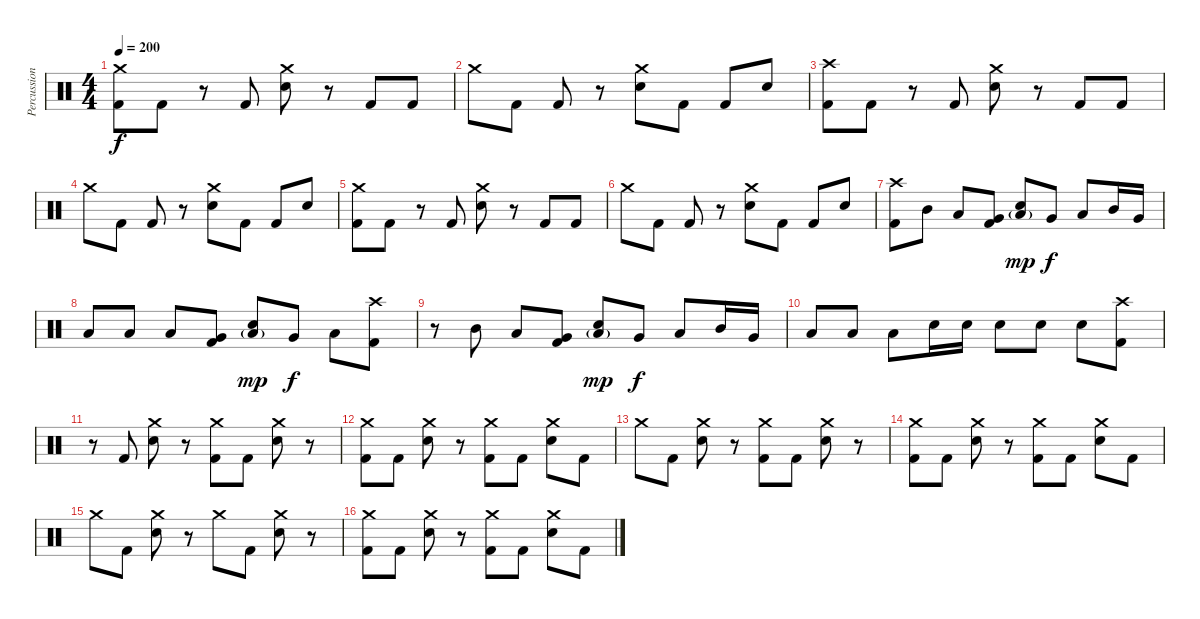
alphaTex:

\track ("Percussion" "Percussion") {instrument percussion}
\staff {score}
\articulation defaults
\ts (4 4)
\tempo 200
\clef neutral
\ks c
("Crash medium (hit)" "Kick (hit) 2").8{dy f} "Kick (hit) 2".8 r.8 "Kick (hit) 2".8 ("Crash medium (hit)" "Snare (hit) 2").8 r.8 "Kick (hit) 2".8 "Kick (hit) 2".8 |
"Crash medium (hit)".8 "Kick (hit) 2".8 "Kick (hit) 2".8 r.8 ("Crash medium (hit)" "Snare (hit) 2").8 "Kick (hit) 2".8 "Kick (hit) 2".8 "Snare (hit) 2".8 |
("Crash high (hit)" "Kick (hit) 2").8 "Kick (hit) 2".8 r.8 "Kick (hit) 2".8 ("Crash medium (hit)" "Snare (hit) 2").8 r.8 "Kick (hit) 2".8 "Kick (hit) 2".8 |
"Crash medium (hit)".8 "Kick (hit) 2".8 "Kick (hit) 2".8 r.8 ("Crash medium (hit)" "Snare (hit) 2").8 "Kick (hit) 2".8 "Kick (hit) 2".8 "Snare (hit) 2".8 |
("Crash medium (hit)" "Kick (hit) 2").8 "Kick (hit) 2".8 r.8 "Kick (hit) 2".8 ("Crash medium (hit)" "Snare (hit) 2").8 r.8 "Kick (hit) 2".8 "Kick (hit) 2".8 |
"Crash medium (hit)".8 "Kick (hit) 2".8 "Kick (hit) 2".8 r.8 ("Crash medium (hit)" "Snare (hit) 2").8 "Kick (hit) 2".8 "Kick (hit) 2".8 "Snare (hit) 2".8 |
("Crash high (hit)" "Kick (hit) 2").8 "Mid Tom (hit)".8 "Low Floor Tom (hit)".8 ("Very Low Tom (hit)" "Kick (hit) 2").8 ("Low Floor Tom (hit)"{g} "Snare (hit) 2").8{dy mp} "Very Low Tom (hit)".8{dy f} "Low Floor Tom (hit)".8 "Mid Tom (hit)".16 "Very Low Tom (hit)".16 |
"Low Floor Tom (hit)".8 "Low Tom (hit)".8 "Low Floor Tom (hit)".8 ("Very Low Tom (hit)" "Kick (hit) 2").8 ("Low Floor Tom (hit)"{g} "Snare (hit) 2").8{dy mp} "Very Low Tom (hit)".8{dy f} "Low Floor Tom (hit)".8 ("Crash high (hit)" "Kick (hit) 2").8 |
r.8 "Mid Tom (hit)".8 "Low Floor Tom (hit)".8 ("Very Low Tom (hit)" "Kick (hit) 2").8 ("Low Floor Tom (hit)"{g} "Snare (hit) 2").8{dy mp} "Very Low Tom (hit)".8{dy f} "Low Floor Tom (hit)".8 "Mid Tom (hit)".16 "Very Low Tom (hit)".16 |
"Low Floor Tom (hit)".8 "Low Tom (hit)".8 "Low Floor Tom (hit)".8 "Snare (hit) 2".16 "Snare (hit) 2".16 "Snare (hit) 2".8 "Snare (hit) 2".8 "Snare (hit) 2".8 ("Crash high (hit)" "Kick (hit) 2").8 |
r.8 "Kick (hit) 2".8 ("Crash medium (hit)" "Snare (hit) 2").8 r.8 ("Crash medium (hit)" "Kick (hit) 2").8 "Kick (hit) 2".8 ("Crash medium (hit)" "Snare (hit) 2").8 r.8 |
("Crash medium (hit)" "Kick (hit) 2").8 "Kick (hit) 2".8 ("Crash medium (hit)" "Snare (hit) 2").8 r.8 ("Crash medium (hit)" "Kick (hit) 2").8 "Kick (hit) 2".8 ("Crash medium (hit)" "Snare (hit) 2").8 "Kick (hit) 2".8 |
"Crash medium (hit)".8 "Kick (hit) 2".8 ("Crash medium (hit)" "Snare (hit) 2").8 r.8 ("Crash medium (hit)" "Kick (hit) 2").8 "Kick (hit) 2".8 ("Crash medium (hit)" "Snare (hit) 2").8 r.8 |
("Crash medium (hit)" "Kick (hit) 2").8 "Kick (hit) 2".8 ("Crash medium (hit)" "Snare (hit) 2").8 r.8 ("Crash medium (hit)" "Kick (hit) 2").8 "Kick (hit) 2".8 ("Crash medium (hit)" "Snare (hit) 2").8 "Kick (hit) 2".8 |
"Crash medium (hit)".8 "Kick (hit) 2".8 ("Crash medium (hit)" "Snare (hit) 2").8 r.8 "Crash medium (hit)".8 "Kick (hit) 2".8 ("Crash medium (hit)" "Snare (hit) 2").8 r.8 |
("Crash medium (hit)" "Kick (hit) 2").8 "Kick (hit) 2".8 ("Crash medium (hit)" "Snare (hit) 2").8 r.8 ("Crash medium (hit)" "Kick (hit) 2").8 "Kick (hit) 2".8 ("Crash medium (hit)" "Snare (hit) 2").8 "Kick (hit) 2".8
